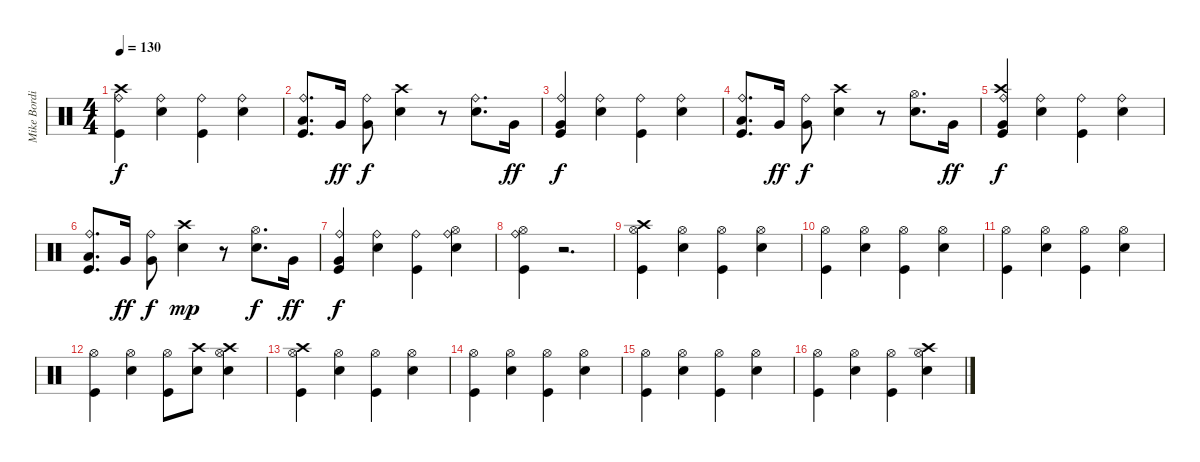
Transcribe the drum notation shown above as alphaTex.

\track ("Mike Bordin" "Mike Bordi") {instrument percussion}
\staff {score}
\articulation defaults
\ts (4 4)
\tempo 130
\clef neutral
\ks c
("Kick (hit)" "Ride (bell)" "Crash high (hit)").4{dy f} ("Snare (hit) 2" "Ride (bell)").4 ("Kick (hit)" "Ride (bell)").4 ("Snare (hit) 2" "Ride (bell)").4 |
("Kick (hit)" "Ride (bell)" "Low Tom (hit)").8{d} "Very Low Tom (hit)".16{dy ff} ("Ride (bell)" "Very Low Tom (hit)").8{dy f} ("Snare (hit) 2" "Crash high (hit)").4 r.8 ("Snare (hit) 2" "Ride (bell)").8{d} "Very Low Tom (hit)".16{dy ff} |
("Kick (hit)" "Ride (bell)" "Very Low Tom (hit)").4{dy f} ("Snare (hit) 2" "Ride (bell)").4 ("Kick (hit)" "Ride (bell)").4 ("Snare (hit) 2" "Ride (bell)").4 |
("Kick (hit)" "Ride (bell)" "Low Tom (hit)").8{d} "Very Low Tom (hit)".16{dy ff} ("Ride (bell)" "Very Low Tom (hit)").8{dy f} ("Snare (hit) 2" "Crash high (hit)").4 r.8 ("Snare (hit) 2" "Hi-Hat (open)").8{d} "Very Low Tom (hit)".16{dy ff} |
("Kick (hit)" "Ride (bell)" "Crash high (hit)" "Very Low Tom (hit)").4{dy f} ("Snare (hit) 2" "Ride (bell)").4 ("Kick (hit)" "Ride (bell)").4 ("Snare (hit) 2" "Ride (bell)").4 |
("Kick (hit)" "Ride (bell)" "Low Tom (hit)").8{d} "Very Low Tom (hit)".16{dy ff} ("Ride (bell)" "Very Low Tom (hit)").8{dy f} ("Snare (hit) 2" "Crash high (hit)").4{dy mp} r.8 ("Snare (hit) 2" "Hi-Hat (open)").8{d dy f} "Very Low Tom (hit)".16{dy ff} |
("Kick (hit)" "Ride (bell)" "Very Low Tom (hit)").4{dy f} ("Snare (hit) 2" "Ride (bell)").4 ("Kick (hit)" "Ride (bell)").4 ("Snare (hit) 2" "Hi-Hat (open)" "Ride (bell)").4 |
("Kick (hit)" "Hi-Hat (open)" "Ride (bell)").4 r.2{d} |
("Kick (hit)" "Hi-Hat (open)" "Crash high (hit)").4 ("Snare (hit) 2" "Hi-Hat (open)").4 ("Kick (hit)" "Hi-Hat (open)").4 ("Snare (hit) 2" "Hi-Hat (open)").4 |
("Kick (hit)" "Hi-Hat (open)").4 ("Snare (hit) 2" "Hi-Hat (open)").4 ("Kick (hit)" "Hi-Hat (open)").4 ("Snare (hit) 2" "Hi-Hat (open)").4 |
("Kick (hit)" "Hi-Hat (open)").4 ("Snare (hit) 2" "Hi-Hat (open)").4 ("Kick (hit)" "Hi-Hat (open)").4 ("Snare (hit) 2" "Hi-Hat (open)").4 |
("Kick (hit)" "Hi-Hat (open)").4 ("Snare (hit) 2" "Hi-Hat (open)").4 ("Kick (hit)" "Hi-Hat (open)").8 ("Snare (hit) 2" "Crash high (hit)").8 ("Snare (hit) 2" "Hi-Hat (open)" "Crash high (hit)").4 |
("Kick (hit)" "Hi-Hat (open)" "Crash high (hit)").4 ("Snare (hit) 2" "Hi-Hat (open)").4 ("Kick (hit)" "Hi-Hat (open)").4 ("Snare (hit) 2" "Hi-Hat (open)").4 |
("Kick (hit)" "Hi-Hat (open)").4 ("Snare (hit) 2" "Hi-Hat (open)").4 ("Kick (hit)" "Hi-Hat (open)").4 ("Snare (hit) 2" "Hi-Hat (open)").4 |
("Kick (hit)" "Hi-Hat (open)").4 ("Snare (hit) 2" "Hi-Hat (open)").4 ("Kick (hit)" "Hi-Hat (open)").4 ("Snare (hit) 2" "Hi-Hat (open)").4 |
("Kick (hit)" "Hi-Hat (open)").4 ("Snare (hit) 2" "Hi-Hat (open)").4 ("Kick (hit)" "Hi-Hat (open)").4 ("Snare (hit) 2" "Hi-Hat (open)" "Crash high (hit)").4
